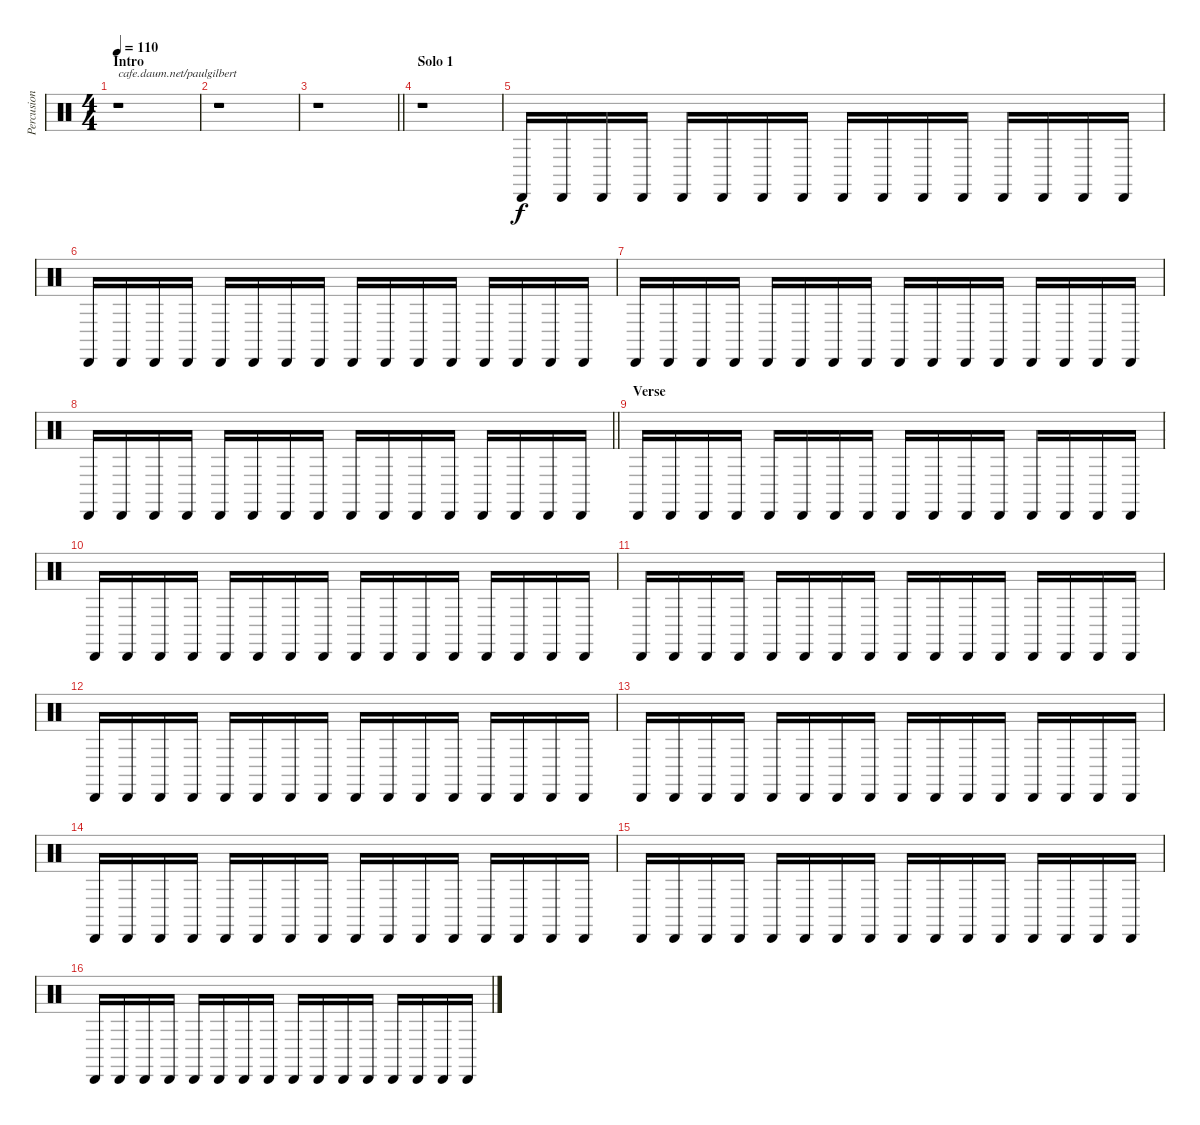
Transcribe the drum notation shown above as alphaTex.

\track ("Percusion" "Percusion") {instrument percussion}
\staff {score}
\articulation defaults
\ts (4 4)
\section ("" "Intro")
\tempo 110
\clef neutral
\ks c
r.1{txt "cafe.daum.net/paulgilbert" dy f} |
r.1 |
\barLineRight lightlight
r.1 |
\section ("" "Solo 1")
r.1 |
"Cabasa (hit)".16 "Cabasa (hit)".16 "Cabasa (hit)".16 "Cabasa (hit)".16 "Cabasa (hit)".16 "Cabasa (hit)".16 "Cabasa (hit)".16 "Cabasa (hit)".16 "Cabasa (hit)".16 "Cabasa (hit)".16 "Cabasa (hit)".16 "Cabasa (hit)".16 "Cabasa (hit)".16 "Cabasa (hit)".16 "Cabasa (hit)".16 "Cabasa (hit)".16 |
"Cabasa (hit)".16 "Cabasa (hit)".16 "Cabasa (hit)".16 "Cabasa (hit)".16 "Cabasa (hit)".16 "Cabasa (hit)".16 "Cabasa (hit)".16 "Cabasa (hit)".16 "Cabasa (hit)".16 "Cabasa (hit)".16 "Cabasa (hit)".16 "Cabasa (hit)".16 "Cabasa (hit)".16 "Cabasa (hit)".16 "Cabasa (hit)".16 "Cabasa (hit)".16 |
"Cabasa (hit)".16 "Cabasa (hit)".16 "Cabasa (hit)".16 "Cabasa (hit)".16 "Cabasa (hit)".16 "Cabasa (hit)".16 "Cabasa (hit)".16 "Cabasa (hit)".16 "Cabasa (hit)".16 "Cabasa (hit)".16 "Cabasa (hit)".16 "Cabasa (hit)".16 "Cabasa (hit)".16 "Cabasa (hit)".16 "Cabasa (hit)".16 "Cabasa (hit)".16 |
\barLineRight lightlight "Cabasa (hit)".16 "Cabasa (hit)".16 "Cabasa (hit)".16 "Cabasa (hit)".16 "Cabasa (hit)".16 "Cabasa (hit)".16 "Cabasa (hit)".16 "Cabasa (hit)".16 "Cabasa (hit)".16 "Cabasa (hit)".16 "Cabasa (hit)".16 "Cabasa (hit)".16 "Cabasa (hit)".16 "Cabasa (hit)".16 "Cabasa (hit)".16 "Cabasa (hit)".16
|
\section ("" "Verse")
"Cabasa (hit)".16 "Cabasa (hit)".16 "Cabasa (hit)".16 "Cabasa (hit)".16 "Cabasa (hit)".16 "Cabasa (hit)".16 "Cabasa (hit)".16 "Cabasa (hit)".16 "Cabasa (hit)".16 "Cabasa (hit)".16 "Cabasa (hit)".16 "Cabasa (hit)".16 "Cabasa (hit)".16 "Cabasa (hit)".16 "Cabasa (hit)".16 "Cabasa (hit)".16 |
"Cabasa (hit)".16 "Cabasa (hit)".16 "Cabasa (hit)".16 "Cabasa (hit)".16 "Cabasa (hit)".16 "Cabasa (hit)".16 "Cabasa (hit)".16 "Cabasa (hit)".16 "Cabasa (hit)".16 "Cabasa (hit)".16 "Cabasa (hit)".16 "Cabasa (hit)".16 "Cabasa (hit)".16 "Cabasa (hit)".16 "Cabasa (hit)".16 "Cabasa (hit)".16 |
"Cabasa (hit)".16 "Cabasa (hit)".16 "Cabasa (hit)".16 "Cabasa (hit)".16 "Cabasa (hit)".16 "Cabasa (hit)".16 "Cabasa (hit)".16 "Cabasa (hit)".16 "Cabasa (hit)".16 "Cabasa (hit)".16 "Cabasa (hit)".16 "Cabasa (hit)".16 "Cabasa (hit)".16 "Cabasa (hit)".16 "Cabasa (hit)".16 "Cabasa (hit)".16 |
"Cabasa (hit)".16 "Cabasa (hit)".16 "Cabasa (hit)".16 "Cabasa (hit)".16 "Cabasa (hit)".16 "Cabasa (hit)".16 "Cabasa (hit)".16 "Cabasa (hit)".16 "Cabasa (hit)".16 "Cabasa (hit)".16 "Cabasa (hit)".16 "Cabasa (hit)".16 "Cabasa (hit)".16 "Cabasa (hit)".16 "Cabasa (hit)".16 "Cabasa (hit)".16 |
"Cabasa (hit)".16 "Cabasa (hit)".16 "Cabasa (hit)".16 "Cabasa (hit)".16 "Cabasa (hit)".16 "Cabasa (hit)".16 "Cabasa (hit)".16 "Cabasa (hit)".16 "Cabasa (hit)".16 "Cabasa (hit)".16 "Cabasa (hit)".16 "Cabasa (hit)".16 "Cabasa (hit)".16 "Cabasa (hit)".16 "Cabasa (hit)".16 "Cabasa (hit)".16 |
"Cabasa (hit)".16 "Cabasa (hit)".16 "Cabasa (hit)".16 "Cabasa (hit)".16 "Cabasa (hit)".16 "Cabasa (hit)".16 "Cabasa (hit)".16 "Cabasa (hit)".16 "Cabasa (hit)".16 "Cabasa (hit)".16 "Cabasa (hit)".16 "Cabasa (hit)".16 "Cabasa (hit)".16 "Cabasa (hit)".16 "Cabasa (hit)".16 "Cabasa (hit)".16 |
"Cabasa (hit)".16 "Cabasa (hit)".16 "Cabasa (hit)".16 "Cabasa (hit)".16 "Cabasa (hit)".16 "Cabasa (hit)".16 "Cabasa (hit)".16 "Cabasa (hit)".16 "Cabasa (hit)".16 "Cabasa (hit)".16 "Cabasa (hit)".16 "Cabasa (hit)".16 "Cabasa (hit)".16 "Cabasa (hit)".16 "Cabasa (hit)".16 "Cabasa (hit)".16 |
"Cabasa (hit)".16 "Cabasa (hit)".16 "Cabasa (hit)".16 "Cabasa (hit)".16 "Cabasa (hit)".16 "Cabasa (hit)".16 "Cabasa (hit)".16 "Cabasa (hit)".16 "Cabasa (hit)".16 "Cabasa (hit)".16 "Cabasa (hit)".16 "Cabasa (hit)".16 "Cabasa (hit)".16 "Cabasa (hit)".16 "Cabasa (hit)".16 "Cabasa (hit)".16
